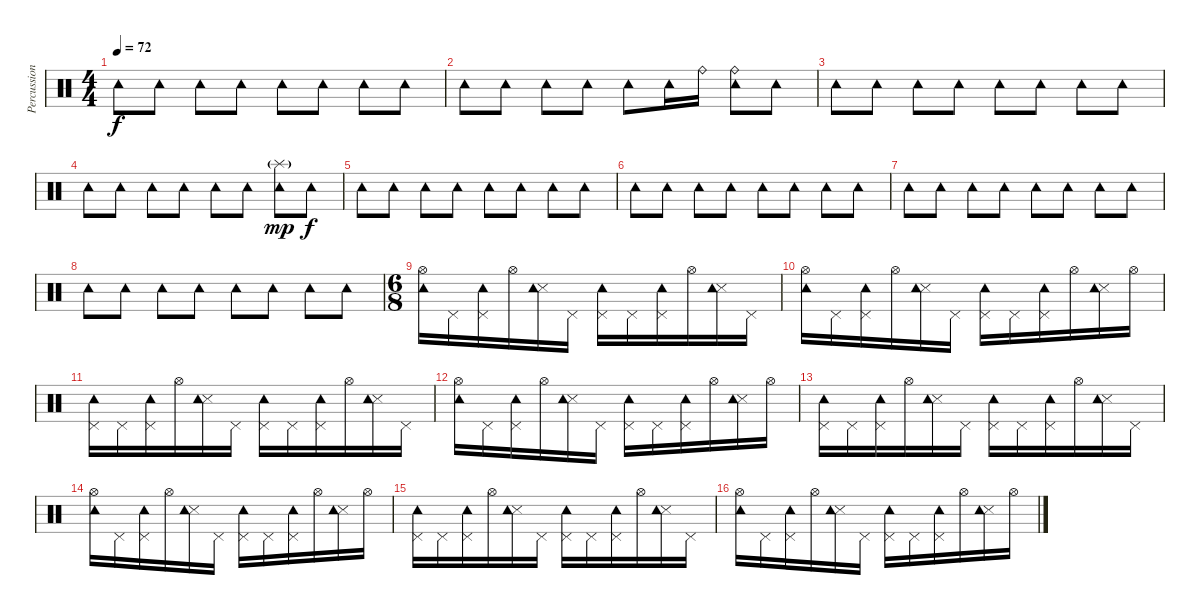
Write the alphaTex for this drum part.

\track ("Percussion" "Percussion") {instrument percussion}
\staff {score}
\articulation defaults
\ts (4 4)
\tempo 72
\clef neutral
\ks c "Tambourine (hit)".8{dy f} "Tambourine (hit)".8 "Tambourine (hit)".8 "Tambourine (hit)".8 "Tambourine (hit)".8 "Tambourine (hit)".8 "Tambourine (hit)".8 "Tambourine (hit)".8
|
"Tambourine (hit)".8 "Tambourine (hit)".8 "Tambourine (hit)".8 "Tambourine (hit)".8 "Tambourine (hit)".8 "Tambourine (hit)".16 "Ride (bell)".16 ("Ride (bell)" "Tambourine (hit)").8 "Tambourine (hit)".8 |
"Tambourine (hit)".8 "Tambourine (hit)".8 "Tambourine (hit)".8 "Tambourine (hit)".8 "Tambourine (hit)".8 "Tambourine (hit)".8 "Tambourine (hit)".8 "Tambourine (hit)".8 |
"Tambourine (hit)".8 "Tambourine (hit)".8 "Tambourine (hit)".8 "Tambourine (hit)".8 "Tambourine (hit)".8 "Tambourine (hit)".8 ("Splash (hit)"{g} "Tambourine (hit)").8{dy mp} "Tambourine (hit)".8{dy f} |
"Tambourine (hit)".8 "Tambourine (hit)".8 "Tambourine (hit)".8 "Tambourine (hit)".8 "Tambourine (hit)".8 "Tambourine (hit)".8 "Tambourine (hit)".8 "Tambourine (hit)".8 |
"Tambourine (hit)".8 "Tambourine (hit)".8 "Tambourine (hit)".8 "Tambourine (hit)".8 "Tambourine (hit)".8 "Tambourine (hit)".8 "Tambourine (hit)".8 "Tambourine (hit)".8 |
"Tambourine (hit)".8 "Tambourine (hit)".8 "Tambourine (hit)".8 "Tambourine (hit)".8 "Tambourine (hit)".8 "Tambourine (hit)".8 "Tambourine (hit)".8 "Tambourine (hit)".8 |
"Tambourine (hit)".8 "Tambourine (hit)".8 "Tambourine (hit)".8 "Tambourine (hit)".8 "Tambourine (hit)".8 "Tambourine (hit)".8 "Tambourine (hit)".8 "Tambourine (hit)".8 |
\ts (6 8)
("Hi-Hat (open)" "Tambourine (hit)").16 "Pedal Hi-Hat (hit)".16 ("Pedal Hi-Hat (hit)" "Tambourine (hit)").16 "Hi-Hat (open)".16 ("Snare (side stick) 3" "Tambourine (hit)").16 "Pedal Hi-Hat (hit)".16 ("Pedal Hi-Hat (hit)" "Tambourine (hit)").16 "Pedal Hi-Hat (hit)".16 ("Pedal Hi-Hat (hit)" "Tambourine (hit)").16 "Hi-Hat (open)".16 ("Snare (side stick) 3" "Tambourine (hit)").16 "Pedal Hi-Hat (hit)".16 |
("Hi-Hat (open)" "Tambourine (hit)").16 "Pedal Hi-Hat (hit)".16 ("Pedal Hi-Hat (hit)" "Tambourine (hit)").16 "Hi-Hat (open)".16 ("Snare (side stick) 3" "Tambourine (hit)").16 "Pedal Hi-Hat (hit)".16 ("Pedal Hi-Hat (hit)" "Tambourine (hit)").16 "Pedal Hi-Hat (hit)".16 ("Pedal Hi-Hat (hit)" "Tambourine (hit)").16 "Hi-Hat (open)".16 ("Snare (side stick) 3" "Tambourine (hit)").16 "Hi-Hat (open)".16 |
("Pedal Hi-Hat (hit)" "Tambourine (hit)").16 "Pedal Hi-Hat (hit)".16 ("Pedal Hi-Hat (hit)" "Tambourine (hit)").16 "Hi-Hat (open)".16 ("Snare (side stick) 3" "Tambourine (hit)").16 "Pedal Hi-Hat (hit)".16 ("Pedal Hi-Hat (hit)" "Tambourine (hit)").16 "Pedal Hi-Hat (hit)".16 ("Pedal Hi-Hat (hit)" "Tambourine (hit)").16 "Hi-Hat (open)".16 ("Snare (side stick) 3" "Tambourine (hit)").16 "Pedal Hi-Hat (hit)".16 |
("Hi-Hat (open)" "Tambourine (hit)").16 "Pedal Hi-Hat (hit)".16 ("Pedal Hi-Hat (hit)" "Tambourine (hit)").16 "Hi-Hat (open)".16 ("Snare (side stick) 3" "Tambourine (hit)").16 "Pedal Hi-Hat (hit)".16 ("Pedal Hi-Hat (hit)" "Tambourine (hit)").16 "Pedal Hi-Hat (hit)".16 ("Pedal Hi-Hat (hit)" "Tambourine (hit)").16 "Hi-Hat (open)".16 ("Snare (side stick) 3" "Tambourine (hit)").16 "Hi-Hat (open)".16 |
("Pedal Hi-Hat (hit)" "Tambourine (hit)").16 "Pedal Hi-Hat (hit)".16 ("Pedal Hi-Hat (hit)" "Tambourine (hit)").16 "Hi-Hat (open)".16 ("Snare (side stick) 3" "Tambourine (hit)").16 "Pedal Hi-Hat (hit)".16 ("Pedal Hi-Hat (hit)" "Tambourine (hit)").16 "Pedal Hi-Hat (hit)".16 ("Pedal Hi-Hat (hit)" "Tambourine (hit)").16 "Hi-Hat (open)".16 ("Snare (side stick) 3" "Tambourine (hit)").16 "Pedal Hi-Hat (hit)".16 |
("Hi-Hat (open)" "Tambourine (hit)").16 "Pedal Hi-Hat (hit)".16 ("Pedal Hi-Hat (hit)" "Tambourine (hit)").16 "Hi-Hat (open)".16 ("Snare (side stick) 3" "Tambourine (hit)").16 "Pedal Hi-Hat (hit)".16 ("Pedal Hi-Hat (hit)" "Tambourine (hit)").16 "Pedal Hi-Hat (hit)".16 ("Pedal Hi-Hat (hit)" "Tambourine (hit)").16 "Hi-Hat (open)".16 ("Snare (side stick) 3" "Tambourine (hit)").16 "Hi-Hat (open)".16 |
("Pedal Hi-Hat (hit)" "Tambourine (hit)").16 "Pedal Hi-Hat (hit)".16 ("Pedal Hi-Hat (hit)" "Tambourine (hit)").16 "Hi-Hat (open)".16 ("Snare (side stick) 3" "Tambourine (hit)").16 "Pedal Hi-Hat (hit)".16 ("Pedal Hi-Hat (hit)" "Tambourine (hit)").16 "Pedal Hi-Hat (hit)".16 ("Pedal Hi-Hat (hit)" "Tambourine (hit)").16 "Hi-Hat (open)".16 ("Snare (side stick) 3" "Tambourine (hit)").16 "Pedal Hi-Hat (hit)".16 |
("Hi-Hat (open)" "Tambourine (hit)").16 "Pedal Hi-Hat (hit)".16 ("Pedal Hi-Hat (hit)" "Tambourine (hit)").16 "Hi-Hat (open)".16 ("Snare (side stick) 3" "Tambourine (hit)").16 "Pedal Hi-Hat (hit)".16 ("Pedal Hi-Hat (hit)" "Tambourine (hit)").16 "Pedal Hi-Hat (hit)".16 ("Pedal Hi-Hat (hit)" "Tambourine (hit)").16 "Hi-Hat (open)".16 ("Snare (side stick) 3" "Tambourine (hit)").16 "Hi-Hat (open)".16
